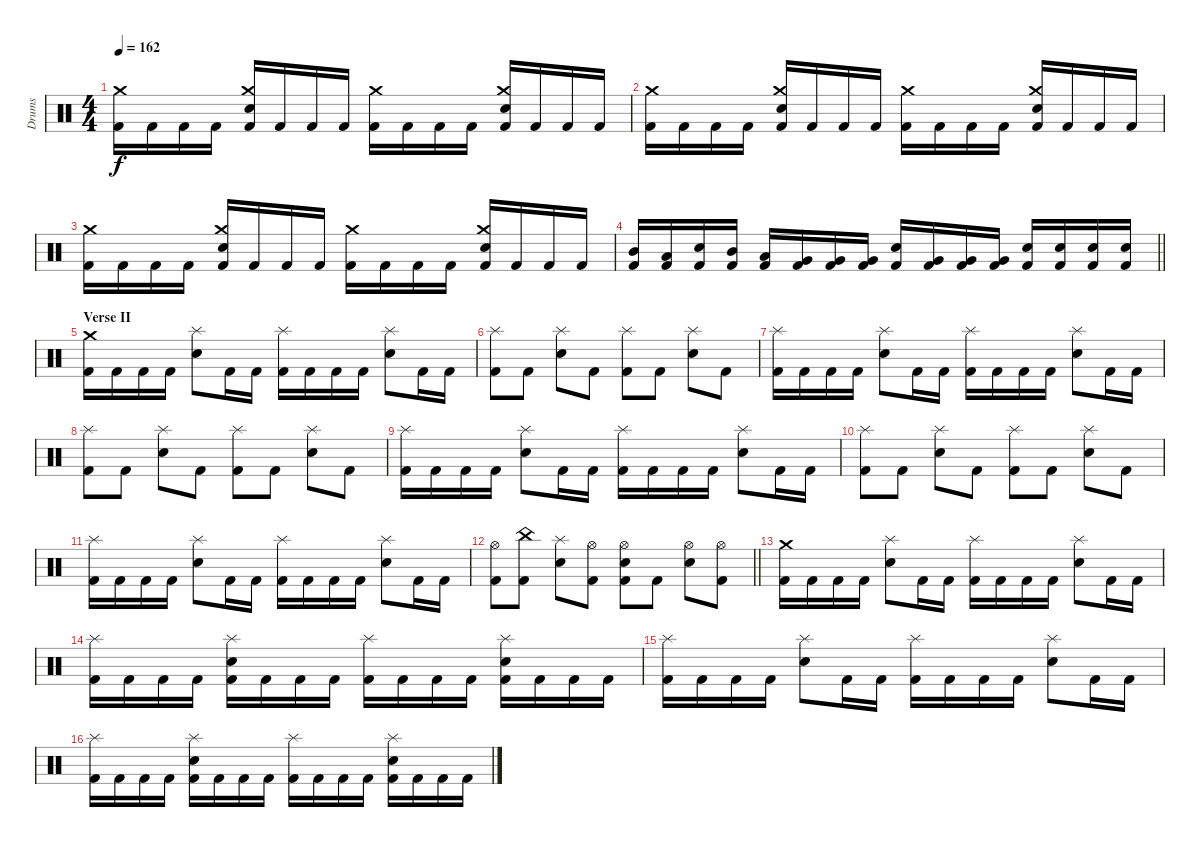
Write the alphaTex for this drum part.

\track ("Drums" "Drums") {instrument percussion}
\staff {score}
\articulation defaults
\ts (4 4)
\section ("" "")
\tempo 162
\clef neutral
\ks c
("Kick (hit) 2" "Crash medium (hit)").16{dy f} "Kick (hit) 2".16 "Kick (hit) 2".16 "Kick (hit) 2".16 ("Kick (hit) 2" "Snare (hit) 2" "Crash medium (hit)").16 "Kick (hit) 2".16 "Kick (hit) 2".16 "Kick (hit) 2".16 ("Kick (hit) 2" "Crash medium (hit)").16 "Kick (hit) 2".16 "Kick (hit) 2".16 "Kick (hit) 2".16 ("Kick (hit) 2" "Snare (hit) 2" "Crash medium (hit)").16 "Kick (hit) 2".16 "Kick (hit) 2".16 "Kick (hit) 2".16 |
("Kick (hit) 2" "Crash medium (hit)").16 "Kick (hit) 2".16 "Kick (hit) 2".16 "Kick (hit) 2".16 ("Kick (hit) 2" "Snare (hit) 2" "Crash medium (hit)").16 "Kick (hit) 2".16 "Kick (hit) 2".16 "Kick (hit) 2".16 ("Kick (hit) 2" "Crash medium (hit)").16 "Kick (hit) 2".16 "Kick (hit) 2".16 "Kick (hit) 2".16 ("Kick (hit) 2" "Snare (hit) 2" "Crash medium (hit)").16 "Kick (hit) 2".16 "Kick (hit) 2".16 "Kick (hit) 2".16 |
("Kick (hit) 2" "Crash medium (hit)").16 "Kick (hit) 2".16 "Kick (hit) 2".16 "Kick (hit) 2".16 ("Kick (hit) 2" "Snare (hit) 2" "Crash medium (hit)").16 "Kick (hit) 2".16 "Kick (hit) 2".16 "Kick (hit) 2".16 ("Kick (hit) 2" "Crash medium (hit)").16 "Kick (hit) 2".16 "Kick (hit) 2".16 "Kick (hit) 2".16 ("Kick (hit) 2" "Snare (hit) 2" "Crash medium (hit)").16 "Kick (hit) 2".16 "Kick (hit) 2".16 "Kick (hit) 2".16 |
\barLineRight lightlight
("Kick (hit) 2" "Mid Tom (hit)").16 ("Kick (hit) 2" "Low Tom (hit)").16 ("Kick (hit) 2" "Snare (hit) 2").16 ("Kick (hit) 2" "Mid Tom (hit)").16 ("Kick (hit) 2" "Low Tom (hit)").16 ("Kick (hit) 2" "Very Low Tom (hit)").16 ("Kick (hit) 2" "Very Low Tom (hit)").16 ("Kick (hit) 2" "Very Low Tom (hit)").16 ("Kick (hit) 2" "Snare (hit) 2").16 ("Kick (hit) 2" "Very Low Tom (hit)").16 ("Kick (hit) 2" "Very Low Tom (hit)").16 ("Kick (hit) 2" "Very Low Tom (hit)").16 ("Kick (hit) 2" "Snare (hit) 2").16 ("Kick (hit) 2" "Snare (hit) 2").16 ("Kick (hit) 2" "Snare (hit) 2").16 ("Kick (hit) 2" "Snare (hit) 2").16 |
\section ("" "Verse II")
("Kick (hit) 2" "Crash medium (hit)").16 "Kick (hit) 2".16 "Kick (hit) 2".16 "Kick (hit) 2".16 ("Snare (hit) 2" "Splash (hit)").8 "Kick (hit) 2".16 "Kick (hit) 2".16 ("Kick (hit) 2" "Splash (hit)").16 "Kick (hit) 2".16 "Kick (hit) 2".16 "Kick (hit) 2".16 ("Snare (hit) 2" "Splash (hit)").8 "Kick (hit) 2".16 "Kick (hit) 2".16 |
("Kick (hit) 2" "Splash (hit)").8 "Kick (hit) 2".8 ("Snare (hit) 2" "Splash (hit)").8 "Kick (hit) 2".8 ("Kick (hit) 2" "Splash (hit)").8 "Kick (hit) 2".8 ("Snare (hit) 2" "Splash (hit)").8 "Kick (hit) 2".8 |
("Kick (hit) 2" "Splash (hit)").16 "Kick (hit) 2".16 "Kick (hit) 2".16 "Kick (hit) 2".16 ("Snare (hit) 2" "Splash (hit)").8 "Kick (hit) 2".16 "Kick (hit) 2".16 ("Kick (hit) 2" "Splash (hit)").16 "Kick (hit) 2".16 "Kick (hit) 2".16 "Kick (hit) 2".16 ("Snare (hit) 2" "Splash (hit)").8 "Kick (hit) 2".16 "Kick (hit) 2".16 |
("Kick (hit) 2" "Splash (hit)").8 "Kick (hit) 2".8 ("Snare (hit) 2" "Splash (hit)").8 "Kick (hit) 2".8 ("Kick (hit) 2" "Splash (hit)").8 "Kick (hit) 2".8 ("Snare (hit) 2" "Splash (hit)").8 "Kick (hit) 2".8 |
("Kick (hit) 2" "Splash (hit)").16 "Kick (hit) 2".16 "Kick (hit) 2".16 "Kick (hit) 2".16 ("Snare (hit) 2" "Splash (hit)").8 "Kick (hit) 2".16 "Kick (hit) 2".16 ("Kick (hit) 2" "Splash (hit)").16 "Kick (hit) 2".16 "Kick (hit) 2".16 "Kick (hit) 2".16 ("Snare (hit) 2" "Splash (hit)").8 "Kick (hit) 2".16 "Kick (hit) 2".16 |
("Kick (hit) 2" "Splash (hit)").8 "Kick (hit) 2".8 ("Snare (hit) 2" "Splash (hit)").8 "Kick (hit) 2".8 ("Kick (hit) 2" "Splash (hit)").8 "Kick (hit) 2".8 ("Snare (hit) 2" "Splash (hit)").8 "Kick (hit) 2".8 |
("Kick (hit) 2" "Splash (hit)").16 "Kick (hit) 2".16 "Kick (hit) 2".16 "Kick (hit) 2".16 ("Snare (hit) 2" "Splash (hit)").8 "Kick (hit) 2".16 "Kick (hit) 2".16 ("Kick (hit) 2" "Splash (hit)").16 "Kick (hit) 2".16 "Kick (hit) 2".16 "Kick (hit) 2".16 ("Snare (hit) 2" "Splash (hit)").8 "Kick (hit) 2".16 "Kick (hit) 2".16 |
\barLineRight lightlight
("Kick (hit) 2" "Hi-Hat (open)").8 ("Kick (hit) 2" "China (hit)").8 ("Snare (hit) 2" "Splash (hit)").8 ("Kick (hit) 2" "Hi-Hat (open)").8 ("Kick (hit) 2" "Snare (hit) 2" "Hi-Hat (open)").8 "Kick (hit) 2".8 ("Snare (hit) 2" "Hi-Hat (open)").8 ("Kick (hit) 2" "Hi-Hat (open)").8 |
\section ("" "")
("Kick (hit) 2" "Crash medium (hit)").16 "Kick (hit) 2".16 "Kick (hit) 2".16 "Kick (hit) 2".16 ("Snare (hit) 2" "Splash (hit)").8 "Kick (hit) 2".16 "Kick (hit) 2".16 ("Kick (hit) 2" "Splash (hit)").16 "Kick (hit) 2".16 "Kick (hit) 2".16 "Kick (hit) 2".16 ("Snare (hit) 2" "Splash (hit)").8 "Kick (hit) 2".16 "Kick (hit) 2".16 |
("Kick (hit) 2" "Splash (hit)").16 "Kick (hit) 2".16 "Kick (hit) 2".16 "Kick (hit) 2".16 ("Kick (hit) 2" "Snare (hit) 2" "Splash (hit)").16 "Kick (hit) 2".16 "Kick (hit) 2".16 "Kick (hit) 2".16 ("Kick (hit) 2" "Splash (hit)").16 "Kick (hit) 2".16 "Kick (hit) 2".16 "Kick (hit) 2".16 ("Kick (hit) 2" "Snare (hit) 2" "Splash (hit)").16 "Kick (hit) 2".16 "Kick (hit) 2".16 "Kick (hit) 2".16 |
("Kick (hit) 2" "Splash (hit)").16 "Kick (hit) 2".16 "Kick (hit) 2".16 "Kick (hit) 2".16 ("Snare (hit) 2" "Splash (hit)").8 "Kick (hit) 2".16 "Kick (hit) 2".16 ("Kick (hit) 2" "Splash (hit)").16 "Kick (hit) 2".16 "Kick (hit) 2".16 "Kick (hit) 2".16 ("Snare (hit) 2" "Splash (hit)").8 "Kick (hit) 2".16 "Kick (hit) 2".16 |
("Kick (hit) 2" "Splash (hit)").16 "Kick (hit) 2".16 "Kick (hit) 2".16 "Kick (hit) 2".16 ("Kick (hit) 2" "Snare (hit) 2" "Splash (hit)").16 "Kick (hit) 2".16 "Kick (hit) 2".16 "Kick (hit) 2".16 ("Kick (hit) 2" "Splash (hit)").16 "Kick (hit) 2".16 "Kick (hit) 2".16 "Kick (hit) 2".16 ("Kick (hit) 2" "Snare (hit) 2" "Splash (hit)").16 "Kick (hit) 2".16 "Kick (hit) 2".16 "Kick (hit) 2".16
